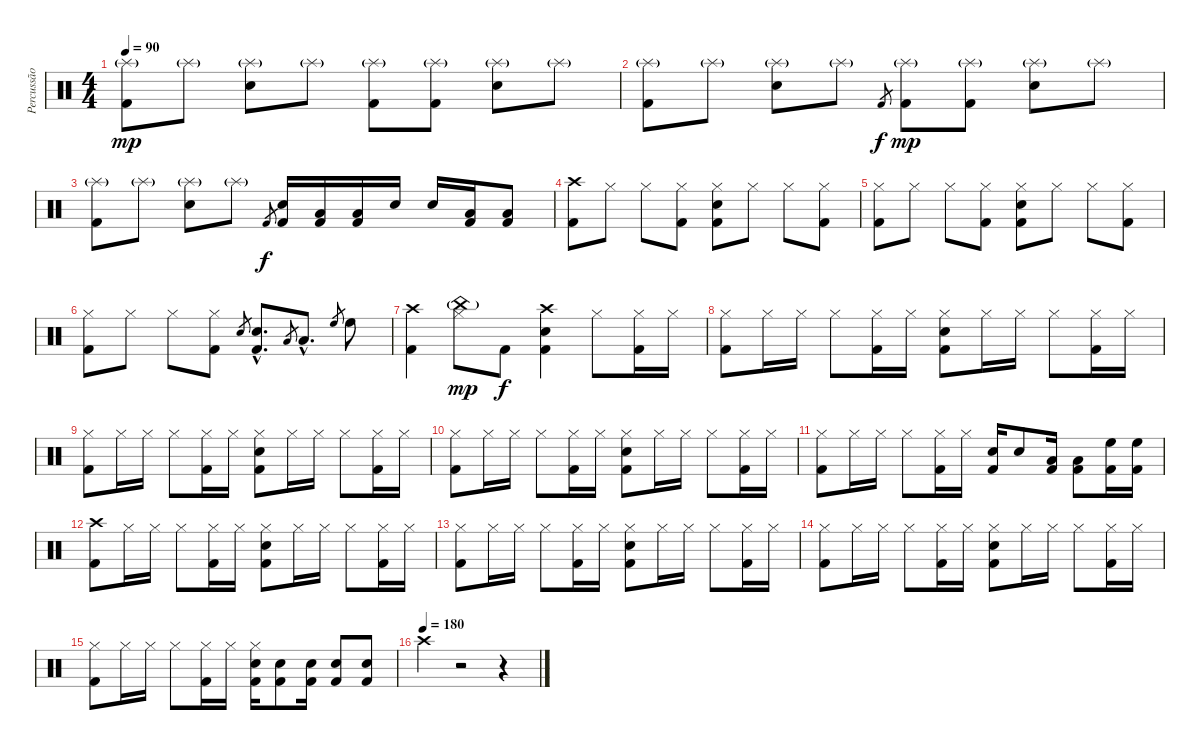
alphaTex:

\track ("Percussão" "Percussão") {instrument percussion}
\staff {score}
\articulation defaults
\ts (4 4)
\tempo 90
\clef neutral
\ks c
("Kick (hit) 2" "Splash (hit)"{g}).8{dy mp} "Splash (hit)"{g}.8 ("Snare (hit) 2" "Splash (hit)"{g}).8 "Splash (hit)"{g}.8 ("Kick (hit) 2" "Splash (hit)"{g}).8 ("Kick (hit) 2" "Splash (hit)"{g}).8 ("Snare (hit) 2" "Splash (hit)"{g}).8 "Splash (hit)"{g}.8 |
("Kick (hit) 2" "Splash (hit)"{g}).8 "Splash (hit)"{g}.8 ("Snare (hit) 2" "Splash (hit)"{g}).8 "Splash (hit)"{g}.8 "Kick (hit) 2".8{gr dy f} ("Kick (hit) 2" "Splash (hit)"{g}).8{dy mp} ("Kick (hit) 2" "Splash (hit)"{g}).8 ("Snare (hit) 2" "Splash (hit)"{g}).8 "Splash (hit)"{g}.8 |
("Kick (hit) 2" "Splash (hit)"{g}).8 "Splash (hit)"{g}.8 ("Snare (hit) 2" "Splash (hit)"{g}).8 "Splash (hit)"{g}.8 "Kick (hit) 2".8{gr dy f} ("Kick (hit) 2" "Snare (hit) 2").16 ("Kick (hit) 2" "Low Tom (hit)").16 ("Kick (hit) 2" "Low Tom (hit)").16 "Snare (hit) 2".16 "Snare (hit) 2".16 ("Kick (hit) 2" "Low Tom (hit)").16 ("Kick (hit) 2" "Low Tom (hit)").8 |
("Kick (hit) 2" "Crash high (hit)").8 "Hi-Hat (closed)".8 "Hi-Hat (closed)".8 ("Kick (hit) 2" "Hi-Hat (closed)").8 ("Kick (hit) 2" "Snare (hit) 2" "Hi-Hat (closed)").8 "Hi-Hat (closed)".8 "Hi-Hat (closed)".8 ("Kick (hit) 2" "Hi-Hat (closed)").8 |
("Kick (hit) 2" "Hi-Hat (closed)").8 "Hi-Hat (closed)".8 "Hi-Hat (closed)".8 ("Kick (hit) 2" "Hi-Hat (closed)").8 ("Kick (hit) 2" "Snare (hit) 2" "Hi-Hat (closed)").8 "Hi-Hat (closed)".8 "Hi-Hat (closed)".8 ("Kick (hit) 2" "Hi-Hat (closed)").8 |
("Kick (hit) 2" "Hi-Hat (closed)").8 "Hi-Hat (closed)".8 "Hi-Hat (closed)".8 ("Kick (hit) 2" "Hi-Hat (closed)").8 "Snare (hit) 2".8{gr} ("Kick (hit) 2"{hac} "Snare (hit) 2"{hac}).8{d} "Low Tom (hit)".8{gr} "Low Tom (hit)"{hac}.8{d} "High Floor Tom (hit)".8{gr} "High Floor Tom (hit)".8 |
("Kick (hit) 2" "Crash high (hit)").4 ("Hi-Hat (closed)" "China (hit)"{g}).8{dy mp} "Kick (hit) 2".8{dy f} ("Kick (hit) 2" "Snare (hit) 2" "Crash high (hit)").4 "Hi-Hat (closed)".8 ("Kick (hit) 2" "Hi-Hat (closed)").16 "Hi-Hat (closed)".16 |
("Kick (hit) 2" "Hi-Hat (closed)").8 "Hi-Hat (closed)".16 "Hi-Hat (closed)".16 "Hi-Hat (closed)".8 ("Kick (hit) 2" "Hi-Hat (closed)").16 "Hi-Hat (closed)".16 ("Kick (hit) 2" "Snare (hit) 2" "Hi-Hat (closed)").8 "Hi-Hat (closed)".16 "Hi-Hat (closed)".16 "Hi-Hat (closed)".8 ("Kick (hit) 2" "Hi-Hat (closed)").16 "Hi-Hat (closed)".16 |
("Kick (hit) 2" "Hi-Hat (closed)").8 "Hi-Hat (closed)".16 "Hi-Hat (closed)".16 "Hi-Hat (closed)".8 ("Kick (hit) 2" "Hi-Hat (closed)").16 "Hi-Hat (closed)".16 ("Kick (hit) 2" "Snare (hit) 2" "Hi-Hat (closed)").8 "Hi-Hat (closed)".16 "Hi-Hat (closed)".16 "Hi-Hat (closed)".8 ("Kick (hit) 2" "Hi-Hat (closed)").16 "Hi-Hat (closed)".16 |
("Kick (hit) 2" "Hi-Hat (closed)").8 "Hi-Hat (closed)".16 "Hi-Hat (closed)".16 "Hi-Hat (closed)".8 ("Kick (hit) 2" "Hi-Hat (closed)").16 "Hi-Hat (closed)".16 ("Kick (hit) 2" "Snare (hit) 2" "Hi-Hat (closed)").8 "Hi-Hat (closed)".16 "Hi-Hat (closed)".16 "Hi-Hat (closed)".8 ("Kick (hit) 2" "Hi-Hat (closed)").16 "Hi-Hat (closed)".16 |
("Kick (hit) 2" "Hi-Hat (closed)").8 "Hi-Hat (closed)".16 "Hi-Hat (closed)".16 "Hi-Hat (closed)".8 ("Kick (hit) 2" "Hi-Hat (closed)").16 "Hi-Hat (closed)".16 ("Kick (hit) 2" "Snare (hit) 2").16 "Snare (hit) 2".8 ("Kick (hit) 2" "Low Tom (hit)").16 ("Kick (hit) 2" "Low Tom (hit)").8 ("Kick (hit) 2" "High Floor Tom (hit)").16 ("Kick (hit) 2" "High Floor Tom (hit)").16 |
("Kick (hit) 2" "Crash high (hit)").8 "Hi-Hat (closed)".16 "Hi-Hat (closed)".16 "Hi-Hat (closed)".8 ("Kick (hit) 2" "Hi-Hat (closed)").16 "Hi-Hat (closed)".16 ("Kick (hit) 2" "Snare (hit) 2" "Hi-Hat (closed)").8 "Hi-Hat (closed)".16 "Hi-Hat (closed)".16 "Hi-Hat (closed)".8 ("Kick (hit) 2" "Hi-Hat (closed)").16 "Hi-Hat (closed)".16 |
("Kick (hit) 2" "Hi-Hat (closed)").8 "Hi-Hat (closed)".16 "Hi-Hat (closed)".16 "Hi-Hat (closed)".8 ("Kick (hit) 2" "Hi-Hat (closed)").16 "Hi-Hat (closed)".16 ("Kick (hit) 2" "Snare (hit) 2" "Hi-Hat (closed)").8 "Hi-Hat (closed)".16 "Hi-Hat (closed)".16 "Hi-Hat (closed)".8 ("Kick (hit) 2" "Hi-Hat (closed)").16 "Hi-Hat (closed)".16 |
("Kick (hit) 2" "Hi-Hat (closed)").8 "Hi-Hat (closed)".16 "Hi-Hat (closed)".16 "Hi-Hat (closed)".8 ("Kick (hit) 2" "Hi-Hat (closed)").16 "Hi-Hat (closed)".16 ("Kick (hit) 2" "Snare (hit) 2" "Hi-Hat (closed)").8 "Hi-Hat (closed)".16 "Hi-Hat (closed)".16 "Hi-Hat (closed)".8 ("Kick (hit) 2" "Hi-Hat (closed)").16 "Hi-Hat (closed)".16 |
("Kick (hit) 2" "Hi-Hat (closed)").8 "Hi-Hat (closed)".16 "Hi-Hat (closed)".16 "Hi-Hat (closed)".8 ("Kick (hit) 2" "Hi-Hat (closed)").16 "Hi-Hat (closed)".16 ("Kick (hit) 2" "Snare (hit) 2" "Hi-Hat (closed)").16 ("Kick (hit) 2" "Snare (hit) 2").8 ("Kick (hit) 2" "Snare (hit) 2").16 ("Kick (hit) 2" "Snare (hit) 2").8 ("Kick (hit) 2" "Snare (hit) 2").8 |
\tempo (180)
"Crash high (hit)".4 r.2 r.4
